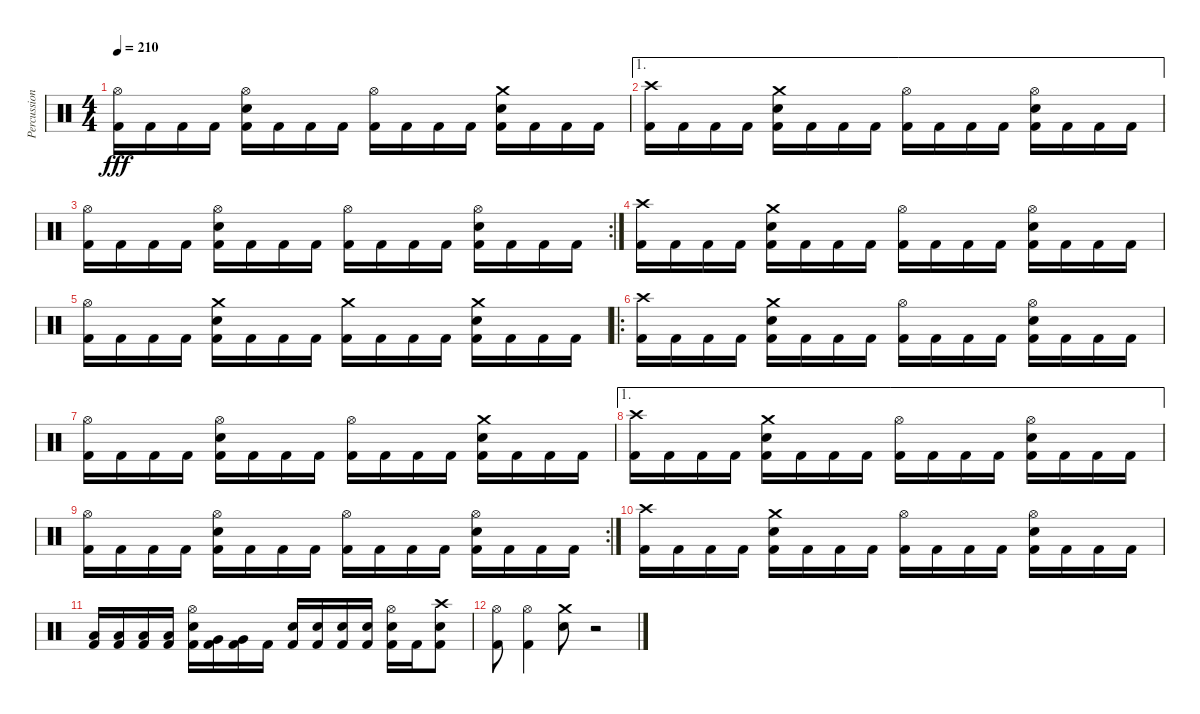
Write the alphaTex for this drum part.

\track ("Percussion" "Percussion") {instrument percussion}
\staff
\articulation defaults
\ts (4 4)
\tempo 210
\clef neutral
\ks c
("Hi-Hat (open)" "Kick (hit) 2").16{dy fff} "Kick (hit) 2".16 "Kick (hit) 2".16 "Kick (hit) 2".16 ("Hi-Hat (open)" "Electric Snare (hit)" "Kick (hit) 2").16 "Kick (hit) 2".16 "Kick (hit) 2".16 "Kick (hit) 2".16 ("Hi-Hat (open)" "Kick (hit) 2").16 "Kick (hit) 2".16 "Kick (hit) 2".16 "Kick (hit) 2".16 ("Crash medium (hit)" "Electric Snare (hit)" "Kick (hit) 2").16 "Kick (hit) 2".16 "Kick (hit) 2".16 "Kick (hit) 2".16 |
\ae 1
("Crash high (hit)" "Kick (hit) 2").16 "Kick (hit) 2".16 "Kick (hit) 2".16 "Kick (hit) 2".16 ("Crash medium (hit)" "Electric Snare (hit)" "Kick (hit) 2").16 "Kick (hit) 2".16 "Kick (hit) 2".16 "Kick (hit) 2".16 ("Hi-Hat (open)" "Kick (hit) 2").16 "Kick (hit) 2".16 "Kick (hit) 2".16 "Kick (hit) 2".16 ("Hi-Hat (open)" "Electric Snare (hit)" "Kick (hit) 2").16 "Kick (hit) 2".16 "Kick (hit) 2".16 "Kick (hit) 2".16 |
\rc 2
("Hi-Hat (open)" "Kick (hit) 2").16 "Kick (hit) 2".16 "Kick (hit) 2".16 "Kick (hit) 2".16 ("Hi-Hat (open)" "Electric Snare (hit)" "Kick (hit) 2").16 "Kick (hit) 2".16 "Kick (hit) 2".16 "Kick (hit) 2".16 ("Hi-Hat (open)" "Kick (hit) 2").16 "Kick (hit) 2".16 "Kick (hit) 2".16 "Kick (hit) 2".16 ("Hi-Hat (open)" "Electric Snare (hit)" "Kick (hit) 2").16 "Kick (hit) 2".16 "Kick (hit) 2".16 "Kick (hit) 2".16 |
("Crash high (hit)" "Kick (hit) 2").16 "Kick (hit) 2".16 "Kick (hit) 2".16 "Kick (hit) 2".16 ("Crash medium (hit)" "Electric Snare (hit)" "Kick (hit) 2").16 "Kick (hit) 2".16 "Kick (hit) 2".16 "Kick (hit) 2".16 ("Hi-Hat (open)" "Kick (hit) 2").16 "Kick (hit) 2".16 "Kick (hit) 2".16 "Kick (hit) 2".16 ("Hi-Hat (open)" "Electric Snare (hit)" "Kick (hit) 2").16 "Kick (hit) 2".16 "Kick (hit) 2".16 "Kick (hit) 2".16 |
("Hi-Hat (open)" "Kick (hit) 2").16 "Kick (hit) 2".16 "Kick (hit) 2".16 "Kick (hit) 2".16 ("Crash medium (hit)" "Electric Snare (hit)" "Kick (hit) 2").16 "Kick (hit) 2".16 "Kick (hit) 2".16 "Kick (hit) 2".16 ("Crash medium (hit)" "Kick (hit) 2").16 "Kick (hit) 2".16 "Kick (hit) 2".16 "Kick (hit) 2".16 ("Crash medium (hit)" "Electric Snare (hit)" "Kick (hit) 2").16 "Kick (hit) 2".16 "Kick (hit) 2".16 "Kick (hit) 2".16 |
\ro
("Crash high (hit)" "Kick (hit) 2").16 "Kick (hit) 2".16 "Kick (hit) 2".16 "Kick (hit) 2".16 ("Crash medium (hit)" "Electric Snare (hit)" "Kick (hit) 2").16 "Kick (hit) 2".16 "Kick (hit) 2".16 "Kick (hit) 2".16 ("Hi-Hat (open)" "Kick (hit) 2").16 "Kick (hit) 2".16 "Kick (hit) 2".16 "Kick (hit) 2".16 ("Hi-Hat (open)" "Electric Snare (hit)" "Kick (hit) 2").16 "Kick (hit) 2".16 "Kick (hit) 2".16 "Kick (hit) 2".16 |
("Hi-Hat (open)" "Kick (hit) 2").16 "Kick (hit) 2".16 "Kick (hit) 2".16 "Kick (hit) 2".16 ("Hi-Hat (open)" "Electric Snare (hit)" "Kick (hit) 2").16 "Kick (hit) 2".16 "Kick (hit) 2".16 "Kick (hit) 2".16 ("Hi-Hat (open)" "Kick (hit) 2").16 "Kick (hit) 2".16 "Kick (hit) 2".16 "Kick (hit) 2".16 ("Crash medium (hit)" "Electric Snare (hit)" "Kick (hit) 2").16 "Kick (hit) 2".16 "Kick (hit) 2".16 "Kick (hit) 2".16 |
\ae 1
("Crash high (hit)" "Kick (hit) 2").16 "Kick (hit) 2".16 "Kick (hit) 2".16 "Kick (hit) 2".16 ("Crash medium (hit)" "Electric Snare (hit)" "Kick (hit) 2").16 "Kick (hit) 2".16 "Kick (hit) 2".16 "Kick (hit) 2".16 ("Hi-Hat (open)" "Kick (hit) 2").16 "Kick (hit) 2".16 "Kick (hit) 2".16 "Kick (hit) 2".16 ("Hi-Hat (open)" "Electric Snare (hit)" "Kick (hit) 2").16 "Kick (hit) 2".16 "Kick (hit) 2".16 "Kick (hit) 2".16 |
\rc 2
("Hi-Hat (open)" "Kick (hit) 2").16 "Kick (hit) 2".16 "Kick (hit) 2".16 "Kick (hit) 2".16 ("Hi-Hat (open)" "Electric Snare (hit)" "Kick (hit) 2").16 "Kick (hit) 2".16 "Kick (hit) 2".16 "Kick (hit) 2".16 ("Hi-Hat (open)" "Kick (hit) 2").16 "Kick (hit) 2".16 "Kick (hit) 2".16 "Kick (hit) 2".16 ("Hi-Hat (open)" "Electric Snare (hit)" "Kick (hit) 2").16 "Kick (hit) 2".16 "Kick (hit) 2".16 "Kick (hit) 2".16 |
("Crash high (hit)" "Kick (hit) 2").16 "Kick (hit) 2".16 "Kick (hit) 2".16 "Kick (hit) 2".16 ("Crash medium (hit)" "Electric Snare (hit)" "Kick (hit) 2").16 "Kick (hit) 2".16 "Kick (hit) 2".16 "Kick (hit) 2".16 ("Hi-Hat (open)" "Kick (hit) 2").16 "Kick (hit) 2".16 "Kick (hit) 2".16 "Kick (hit) 2".16 ("Hi-Hat (open)" "Electric Snare (hit)" "Kick (hit) 2").16 "Kick (hit) 2".16 "Kick (hit) 2".16 "Kick (hit) 2".16 |
("Low Tom (hit)" "Kick (hit) 2").16 ("Low Tom (hit)" "Kick (hit) 2").16 ("Low Tom (hit)" "Kick (hit) 2").16 ("Low Tom (hit)" "Kick (hit) 2").16 ("Hi-Hat (open)" "Electric Snare (hit)" "Kick (hit) 2").16 ("Very Low Tom (hit)" "Kick (hit) 2").16 ("Very Low Tom (hit)" "Kick (hit) 2").16 "Kick (hit) 2".16 ("Electric Snare (hit)" "Kick (hit) 2").16 ("Electric Snare (hit)" "Kick (hit) 2").16 ("Electric Snare (hit)" "Kick (hit) 2").16 ("Electric Snare (hit)" "Kick (hit) 2").16 ("Hi-Hat (open)" "Electric Snare (hit)" "Kick (hit) 2").16 "Kick (hit) 2".16 ("Crash high (hit)" "Electric Snare (hit)" "Kick (hit) 2").8 |
("Hi-Hat (open)" "Kick (hit) 2").8 ("Hi-Hat (open)" "Kick (hit) 2").4 ("Crash medium (hit)" "Electric Snare (hit)").8 r.2
